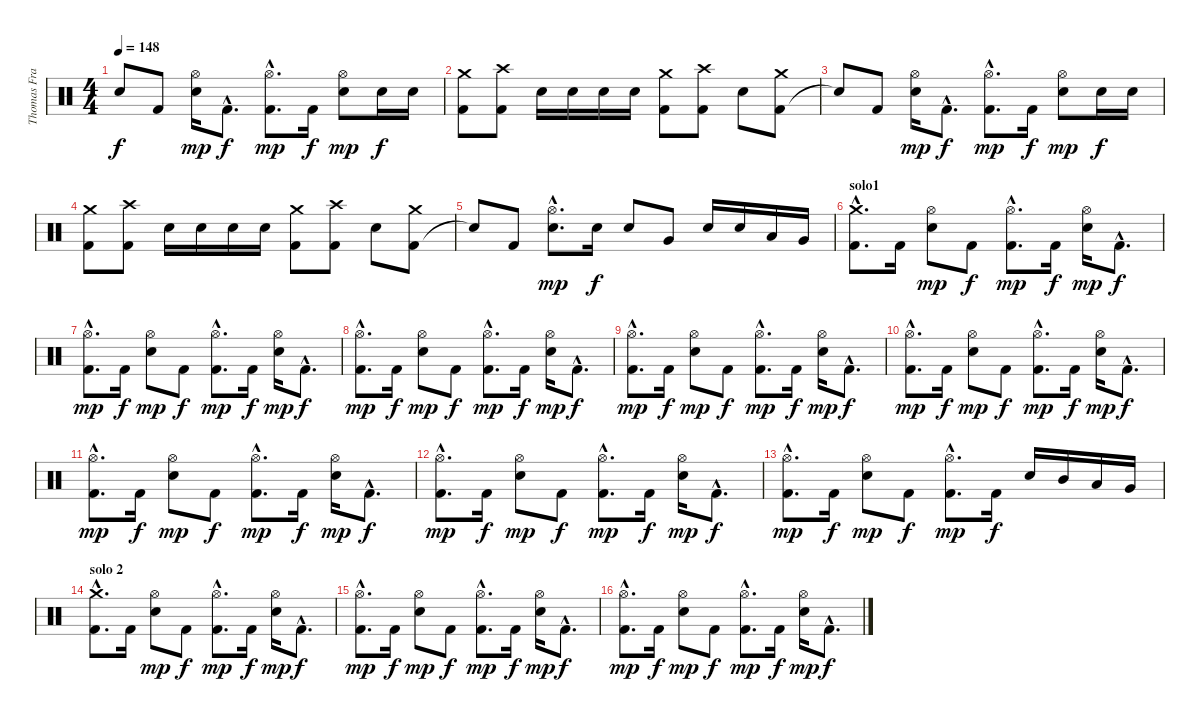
\track ("Thomas Franke" "Thomas Fra") {instrument percussion}
\staff {score}
\articulation defaults
\ts (4 4)
\tempo 148
\clef neutral
\ks c "Snare (hit)"{t}.8{dy f} "Kick (hit) 2".8
("Hi-Hat (open)" "Snare (hit) 2").16{dy mp} "Kick (hit) 2"{hac}.8{d dy f} ("Kick (hit) 2"{hac} "Hi-Hat (open)"{hac}).8{d dy mp} "Kick (hit) 2".16{dy f} ("Hi-Hat (open)" "Snare (hit) 2").8{dy mp} "Snare (hit) 2".16{dy f} "Snare (hit) 2".16 |
("Kick (hit) 2" "Crash medium (hit)").8 ("Kick (hit) 2" "Crash high (hit)").8 "Snare (hit) 2".16 "Snare (hit) 2".16 "Snare (hit) 2".16 "Snare (hit) 2".16 ("Kick (hit) 2" "Crash medium (hit)").8 ("Kick (hit) 2" "Crash high (hit)").8 "Snare (hit) 2".8 ("Kick (hit) 2" "Crash medium (hit)").8 |
"Snare (hit)"{t}.8 "Kick (hit) 2".8 ("Hi-Hat (open)" "Snare (hit) 2").16{dy mp} "Kick (hit) 2"{hac}.8{d dy f} ("Kick (hit) 2"{hac} "Hi-Hat (open)"{hac}).8{d dy mp} "Kick (hit) 2".16{dy f} ("Hi-Hat (open)" "Snare (hit) 2").8{dy mp} "Snare (hit) 2".16{dy f} "Snare (hit) 2".16 |
("Kick (hit) 2" "Crash medium (hit)").8 ("Kick (hit) 2" "Crash high (hit)").8 "Snare (hit) 2".16 "Snare (hit) 2".16 "Snare (hit) 2".16 "Snare (hit) 2".16 ("Kick (hit) 2" "Crash medium (hit)").8 ("Kick (hit) 2" "Crash high (hit)").8 "Snare (hit) 2".8 ("Kick (hit) 2" "Crash medium (hit)").8 |
"Snare (hit)"{t}.8 "Kick (hit) 2".8 ("Hi-Hat (open)"{hac} "Snare (hit) 2"{hac}).8{d dy mp} "Snare (hit) 2".16{dy f} "Snare (hit) 2".8 "Very Low Tom (hit)".8 "Snare (hit) 2".16 "Snare (hit) 2".16 "Low Tom (hit)".16 "Very Low Tom (hit)".16 |
\section ("" "solo1")
("Kick (hit) 2"{hac} "Crash medium (hit)"{hac}).8{d} "Kick (hit) 2".16 ("Hi-Hat (open)" "Snare (hit) 2").8{dy mp} "Kick (hit) 2".8{dy f} ("Kick (hit) 2"{hac} "Hi-Hat (open)"{hac}).8{d dy mp} "Kick (hit) 2".16{dy f} ("Hi-Hat (open)" "Snare (hit) 2").16{dy mp} "Kick (hit) 2"{hac}.8{d dy f} |
("Kick (hit) 2"{hac} "Hi-Hat (open)"{hac}).8{d dy mp} "Kick (hit) 2".16{dy f} ("Hi-Hat (open)" "Snare (hit) 2").8{dy mp} "Kick (hit) 2".8{dy f} ("Kick (hit) 2"{hac} "Hi-Hat (open)"{hac}).8{d dy mp} "Kick (hit) 2".16{dy f} ("Hi-Hat (open)" "Snare (hit) 2").16{dy mp} "Kick (hit) 2"{hac}.8{d dy f} |
("Kick (hit) 2"{hac} "Hi-Hat (open)"{hac}).8{d dy mp} "Kick (hit) 2".16{dy f} ("Hi-Hat (open)" "Snare (hit) 2").8{dy mp} "Kick (hit) 2".8{dy f} ("Kick (hit) 2"{hac} "Hi-Hat (open)"{hac}).8{d dy mp} "Kick (hit) 2".16{dy f} ("Hi-Hat (open)" "Snare (hit) 2").16{dy mp} "Kick (hit) 2"{hac}.8{d dy f} |
("Kick (hit) 2"{hac} "Hi-Hat (open)"{hac}).8{d dy mp} "Kick (hit) 2".16{dy f} ("Hi-Hat (open)" "Snare (hit) 2").8{dy mp} "Kick (hit) 2".8{dy f} ("Kick (hit) 2"{hac} "Hi-Hat (open)"{hac}).8{d dy mp} "Kick (hit) 2".16{dy f} ("Hi-Hat (open)" "Snare (hit) 2").16{dy mp} "Kick (hit) 2"{hac}.8{d dy f} |
("Kick (hit) 2"{hac} "Hi-Hat (open)"{hac}).8{d dy mp} "Kick (hit) 2".16{dy f} ("Hi-Hat (open)" "Snare (hit) 2").8{dy mp} "Kick (hit) 2".8{dy f} ("Kick (hit) 2"{hac} "Hi-Hat (open)"{hac}).8{d dy mp} "Kick (hit) 2".16{dy f} ("Hi-Hat (open)" "Snare (hit) 2").16{dy mp} "Kick (hit) 2"{hac}.8{d dy f} |
("Kick (hit) 2"{hac} "Hi-Hat (open)"{hac}).8{d dy mp} "Kick (hit) 2".16{dy f} ("Hi-Hat (open)" "Snare (hit) 2").8{dy mp} "Kick (hit) 2".8{dy f} ("Kick (hit) 2"{hac} "Hi-Hat (open)"{hac}).8{d dy mp} "Kick (hit) 2".16{dy f} ("Hi-Hat (open)" "Snare (hit) 2").16{dy mp} "Kick (hit) 2"{hac}.8{d dy f} |
("Kick (hit) 2"{hac} "Hi-Hat (open)"{hac}).8{d dy mp} "Kick (hit) 2".16{dy f} ("Hi-Hat (open)" "Snare (hit) 2").8{dy mp} "Kick (hit) 2".8{dy f} ("Kick (hit) 2"{hac} "Hi-Hat (open)"{hac}).8{d dy mp} "Kick (hit) 2".16{dy f} ("Hi-Hat (open)" "Snare (hit) 2").16{dy mp} "Kick (hit) 2"{hac}.8{d dy f} |
("Kick (hit) 2"{hac} "Hi-Hat (open)"{hac}).8{d dy mp} "Kick (hit) 2".16{dy f} ("Hi-Hat (open)" "Snare (hit) 2").8{dy mp} "Kick (hit) 2".8{dy f} ("Kick (hit) 2"{hac} "Hi-Hat (open)"{hac}).8{d dy mp} "Kick (hit) 2".16{dy f} "Snare (hit) 2".16 "Mid Tom (hit)".16 "Low Tom (hit)".16 "Very Low Tom (hit)".16 |
\section ("" "solo 2")
("Kick (hit) 2"{hac} "Crash medium (hit)"{hac}).8{d} "Kick (hit) 2".16 ("Hi-Hat (open)" "Snare (hit) 2").8{dy mp} "Kick (hit) 2".8{dy f} ("Kick (hit) 2"{hac} "Hi-Hat (open)"{hac}).8{d dy mp} "Kick (hit) 2".16{dy f} ("Hi-Hat (open)" "Snare (hit) 2").16{dy mp} "Kick (hit) 2"{hac}.8{d dy f} |
("Kick (hit) 2"{hac} "Hi-Hat (open)"{hac}).8{d dy mp} "Kick (hit) 2".16{dy f} ("Hi-Hat (open)" "Snare (hit) 2").8{dy mp} "Kick (hit) 2".8{dy f} ("Kick (hit) 2"{hac} "Hi-Hat (open)"{hac}).8{d dy mp} "Kick (hit) 2".16{dy f} ("Hi-Hat (open)" "Snare (hit) 2").16{dy mp} "Kick (hit) 2"{hac}.8{d dy f} |
("Kick (hit) 2"{hac} "Hi-Hat (open)"{hac}).8{d dy mp} "Kick (hit) 2".16{dy f} ("Hi-Hat (open)" "Snare (hit) 2").8{dy mp} "Kick (hit) 2".8{dy f} ("Kick (hit) 2"{hac} "Hi-Hat (open)"{hac}).8{d dy mp} "Kick (hit) 2".16{dy f} ("Hi-Hat (open)" "Snare (hit) 2").16{dy mp} "Kick (hit) 2"{hac}.8{d dy f}
